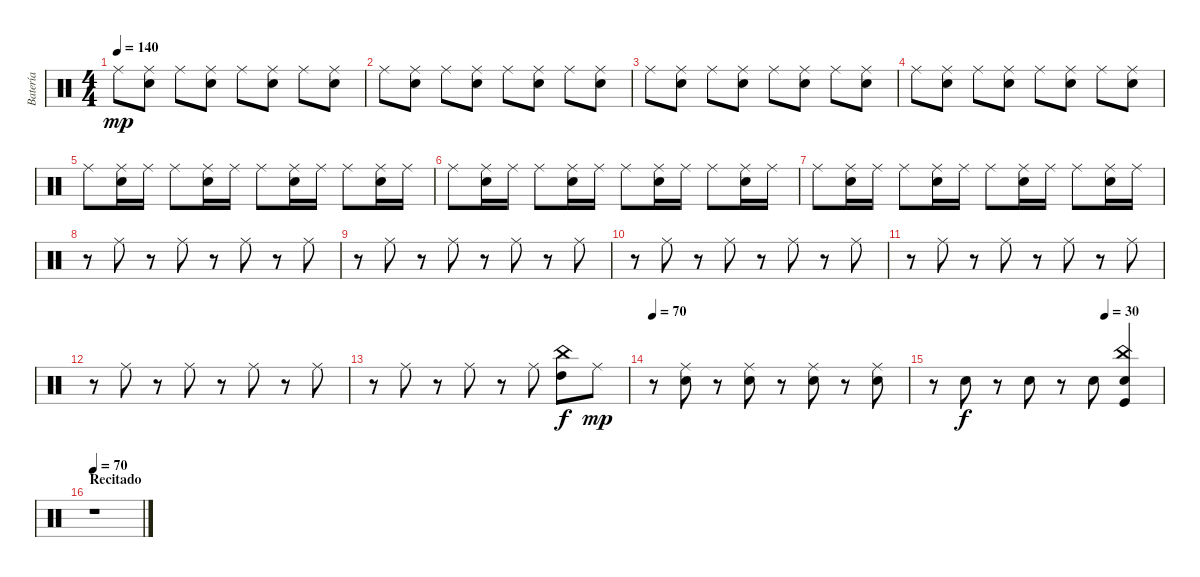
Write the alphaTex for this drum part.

\track ("Batería" "Batería") {instrument percussion}
\staff {score}
\articulation defaults
\ts (4 4)
\tempo 140
\clef neutral
\ks c "Ride (middle)".8{dy mp}
("Ride (middle)" "Snare (hit) 2").8 "Ride (middle)".8 ("Ride (middle)" "Snare (hit) 2").8 "Ride (middle)".8 ("Ride (middle)" "Snare (hit) 2").8 "Ride (middle)".8 ("Ride (middle)" "Snare (hit) 2").8 |
"Ride (middle)".8 ("Ride (middle)" "Snare (hit) 2").8 "Ride (middle)".8 ("Ride (middle)" "Snare (hit) 2").8 "Ride (middle)".8 ("Ride (middle)" "Snare (hit) 2").8 "Ride (middle)".8 ("Ride (middle)" "Snare (hit) 2").8 |
"Ride (middle)".8 ("Ride (middle)" "Snare (hit) 2").8 "Ride (middle)".8 ("Ride (middle)" "Snare (hit) 2").8 "Ride (middle)".8 ("Ride (middle)" "Snare (hit) 2").8 "Ride (middle)".8 ("Ride (middle)" "Snare (hit) 2").8 |
"Ride (middle)".8 ("Ride (middle)" "Snare (hit) 2").8 "Ride (middle)".8 ("Ride (middle)" "Snare (hit) 2").8 "Ride (middle)".8 ("Ride (middle)" "Snare (hit) 2").8 "Ride (middle)".8 ("Ride (middle)" "Snare (hit) 2").8 |
"Ride (middle)".8 ("Ride (middle)" "Snare (hit) 2").16 "Ride (middle)".16 "Ride (middle)".8 ("Ride (middle)" "Snare (hit) 2").16 "Ride (middle)".16 "Ride (middle)".8 ("Ride (middle)" "Snare (hit) 2").16 "Ride (middle)".16 "Ride (middle)".8 ("Ride (middle)" "Snare (hit) 2").16 "Ride (middle)".16 |
"Ride (middle)".8 ("Ride (middle)" "Snare (hit) 2").16 "Ride (middle)".16 "Ride (middle)".8 ("Ride (middle)" "Snare (hit) 2").16 "Ride (middle)".16 "Ride (middle)".8 ("Ride (middle)" "Snare (hit) 2").16 "Ride (middle)".16 "Ride (middle)".8 ("Ride (middle)" "Snare (hit) 2").16 "Ride (middle)".16 |
"Ride (middle)".8 ("Ride (middle)" "Snare (hit) 2").16 "Ride (middle)".16 "Ride (middle)".8 ("Ride (middle)" "Snare (hit) 2").16 "Ride (middle)".16 "Ride (middle)".8 ("Ride (middle)" "Snare (hit) 2").16 "Ride (middle)".16 "Ride (middle)".8 ("Ride (middle)" "Snare (hit) 2").16 "Ride (middle)".16 |
r.8 "Ride (middle)".8 r.8 "Ride (middle)".8 r.8 "Ride (middle)".8 r.8 "Ride (middle)".8 |
r.8 "Ride (middle)".8 r.8 "Ride (middle)".8 r.8 "Ride (middle)".8 r.8 "Ride (middle)".8 |
r.8 "Ride (middle)".8 r.8 "Ride (middle)".8 r.8 "Ride (middle)".8 r.8 "Ride (middle)".8 |
r.8 "Ride (middle)".8 r.8 "Ride (middle)".8 r.8 "Ride (middle)".8 r.8 "Ride (middle)".8 |
r.8 "Ride (middle)".8 r.8 "Ride (middle)".8 r.8 "Ride (middle)".8 r.8 "Ride (middle)".8 |
r.8 "Ride (middle)".8 r.8 "Ride (middle)".8 r.8 "Ride (middle)".8 ("High Tom (hit)" "China (hit)").8{dy f} "Ride (middle)".8{dy mp} |
\tempo 70
r.8 ("Ride (middle)" "Snare (hit) 2").8 r.8 ("Ride (middle)" "Snare (hit) 2").8 r.8 ("Ride (middle)" "Snare (hit) 2").8 r.8 ("Ride (middle)" "Snare (hit) 2").8 |
\tempo (30 0.75)
r.8 "Snare (hit) 2".8{dy f} r.8 "Snare (hit) 2".8 r.8 "Snare (hit) 2".8 ("Snare (hit) 2" "China (hit)" "Kick (hit)").4 |
\section ("" "Recitado")
\tempo 70
r.1
